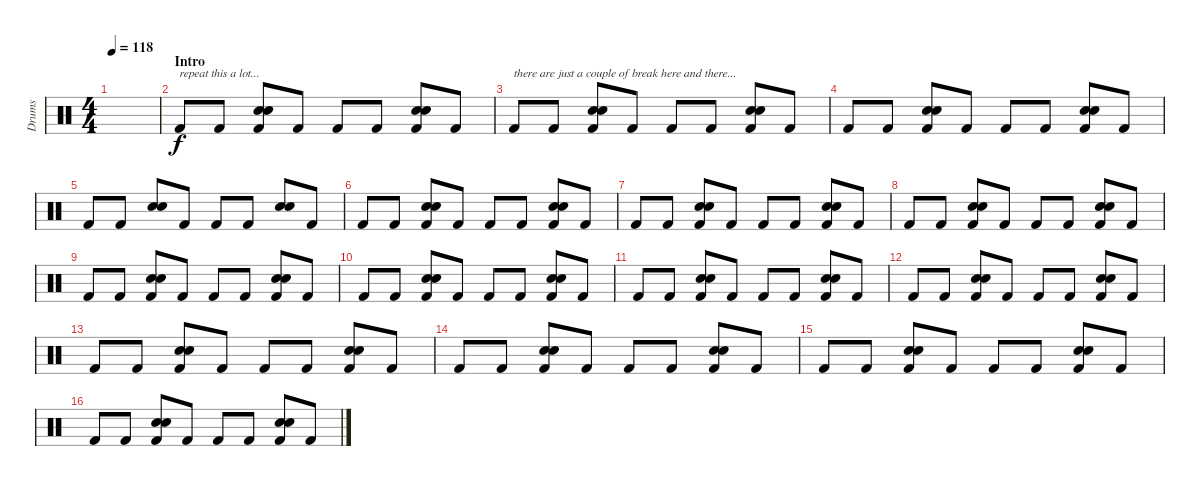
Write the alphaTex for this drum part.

\track ("Drums" "Drums") {instrument percussion}
\staff {score}
\articulation defaults
\ts (4 4)
\tempo 118
\clef neutral
\ks c
|
\section ("" "Intro")
"Kick (hit) 2".8{txt "repeat this a lot..."} "Kick (hit) 2".8 ("Snare (hit) 2" "Electric Snare (hit)" "Kick (hit) 2").8 "Kick (hit) 2".8 "Kick (hit) 2".8 "Kick (hit) 2".8 ("Snare (hit) 2" "Electric Snare (hit)" "Kick (hit) 2").8 "Kick (hit) 2".8 |
"Kick (hit) 2".8{txt "there are just a couple of break here and there..."} "Kick (hit) 2".8 ("Snare (hit) 2" "Electric Snare (hit)" "Kick (hit) 2").8 "Kick (hit) 2".8 "Kick (hit) 2".8 "Kick (hit) 2".8 ("Snare (hit) 2" "Electric Snare (hit)" "Kick (hit) 2").8 "Kick (hit) 2".8 |
"Kick (hit) 2".8 "Kick (hit) 2".8 ("Snare (hit) 2" "Electric Snare (hit)" "Kick (hit) 2").8 "Kick (hit) 2".8 "Kick (hit) 2".8 "Kick (hit) 2".8 ("Snare (hit) 2" "Electric Snare (hit)" "Kick (hit) 2").8 "Kick (hit) 2".8 |
"Kick (hit) 2".8 "Kick (hit) 2".8 ("Snare (hit) 2" "Electric Snare (hit)").8 "Kick (hit) 2".8 "Kick (hit) 2".8 "Kick (hit) 2".8 ("Snare (hit) 2" "Electric Snare (hit)").8 "Kick (hit) 2".8 |
"Kick (hit) 2".8 "Kick (hit) 2".8 ("Snare (hit) 2" "Electric Snare (hit)" "Kick (hit) 2").8 "Kick (hit) 2".8 "Kick (hit) 2".8 "Kick (hit) 2".8 ("Snare (hit) 2" "Electric Snare (hit)" "Kick (hit) 2").8 "Kick (hit) 2".8 |
"Kick (hit) 2".8 "Kick (hit) 2".8 ("Snare (hit) 2" "Electric Snare (hit)" "Kick (hit) 2").8 "Kick (hit) 2".8 "Kick (hit) 2".8 "Kick (hit) 2".8 ("Snare (hit) 2" "Electric Snare (hit)" "Kick (hit) 2").8 "Kick (hit) 2".8 |
"Kick (hit) 2".8 "Kick (hit) 2".8 ("Snare (hit) 2" "Electric Snare (hit)" "Kick (hit) 2").8 "Kick (hit) 2".8 "Kick (hit) 2".8 "Kick (hit) 2".8 ("Snare (hit) 2" "Electric Snare (hit)" "Kick (hit) 2").8 "Kick (hit) 2".8 |
"Kick (hit) 2".8 "Kick (hit) 2".8 ("Snare (hit) 2" "Electric Snare (hit)" "Kick (hit) 2").8 "Kick (hit) 2".8 "Kick (hit) 2".8 "Kick (hit) 2".8 ("Snare (hit) 2" "Electric Snare (hit)" "Kick (hit) 2").8 "Kick (hit) 2".8 |
"Kick (hit) 2".8 "Kick (hit) 2".8 ("Snare (hit) 2" "Electric Snare (hit)" "Kick (hit) 2").8 "Kick (hit) 2".8 "Kick (hit) 2".8 "Kick (hit) 2".8 ("Snare (hit) 2" "Electric Snare (hit)" "Kick (hit) 2").8 "Kick (hit) 2".8 |
"Kick (hit) 2".8 "Kick (hit) 2".8 ("Snare (hit) 2" "Electric Snare (hit)" "Kick (hit) 2").8 "Kick (hit) 2".8 "Kick (hit) 2".8 "Kick (hit) 2".8 ("Snare (hit) 2" "Electric Snare (hit)" "Kick (hit) 2").8 "Kick (hit) 2".8 |
"Kick (hit) 2".8 "Kick (hit) 2".8 ("Snare (hit) 2" "Electric Snare (hit)" "Kick (hit) 2").8 "Kick (hit) 2".8 "Kick (hit) 2".8 "Kick (hit) 2".8 ("Snare (hit) 2" "Electric Snare (hit)" "Kick (hit) 2").8 "Kick (hit) 2".8 |
"Kick (hit) 2".8 "Kick (hit) 2".8 ("Snare (hit) 2" "Electric Snare (hit)" "Kick (hit) 2").8 "Kick (hit) 2".8 "Kick (hit) 2".8 "Kick (hit) 2".8 ("Snare (hit) 2" "Electric Snare (hit)" "Kick (hit) 2").8 "Kick (hit) 2".8 |
"Kick (hit) 2".8 "Kick (hit) 2".8 ("Snare (hit) 2" "Electric Snare (hit)" "Kick (hit) 2").8 "Kick (hit) 2".8 "Kick (hit) 2".8 "Kick (hit) 2".8 ("Snare (hit) 2" "Electric Snare (hit)" "Kick (hit) 2").8 "Kick (hit) 2".8 |
"Kick (hit) 2".8 "Kick (hit) 2".8 ("Snare (hit) 2" "Electric Snare (hit)" "Kick (hit) 2").8 "Kick (hit) 2".8 "Kick (hit) 2".8 "Kick (hit) 2".8 ("Snare (hit) 2" "Electric Snare (hit)" "Kick (hit) 2").8 "Kick (hit) 2".8 |
"Kick (hit) 2".8 "Kick (hit) 2".8 ("Snare (hit) 2" "Electric Snare (hit)" "Kick (hit) 2").8 "Kick (hit) 2".8 "Kick (hit) 2".8 "Kick (hit) 2".8 ("Snare (hit) 2" "Electric Snare (hit)" "Kick (hit) 2").8 "Kick (hit) 2".8
